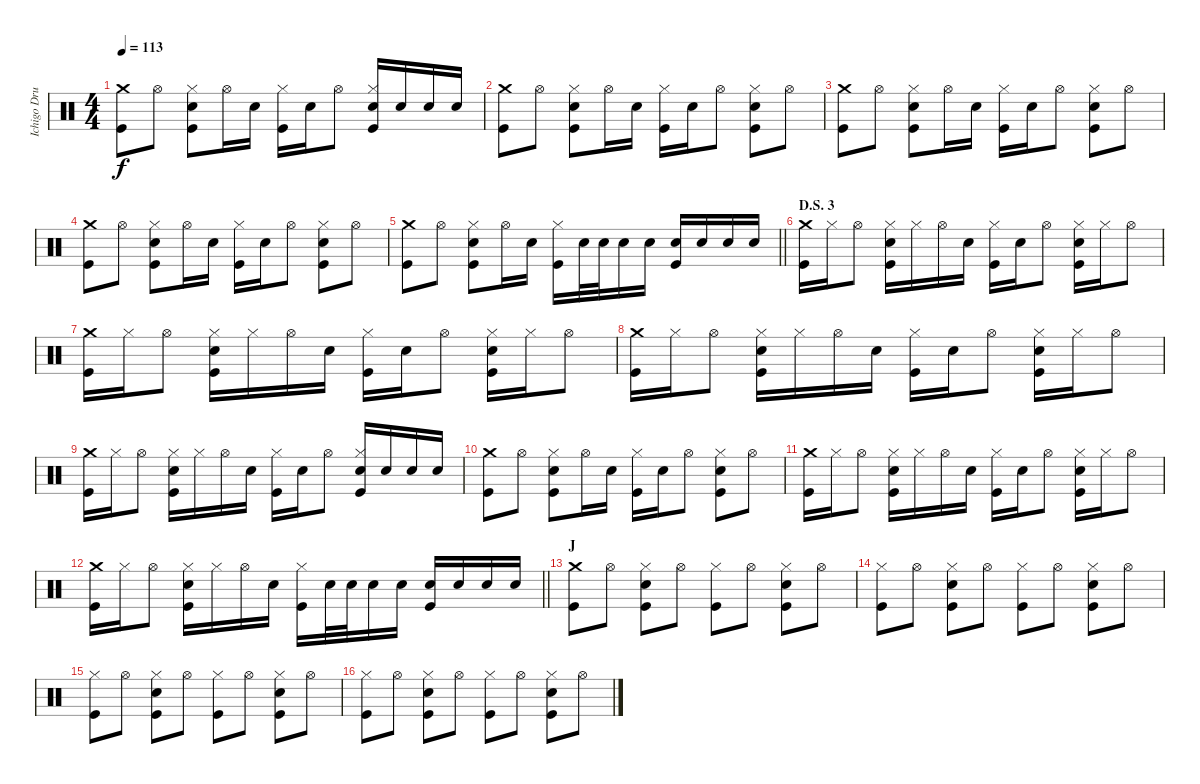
\track ("Ichigo Drums" "Ichigo Dru") {instrument percussion}
\staff {score}
\articulation defaults
\ts (4 4)
\tempo 113
\clef neutral
\ks c
("Crash medium (hit)" "Kick (hit)").8{dy f} "Hi-Hat (open)".8 ("Hi-Hat (closed)" "Snare (hit) 2" "Kick (hit)").8 "Hi-Hat (open)".16 "Snare (hit) 2".16 ("Hi-Hat (closed)" "Kick (hit)").16 "Snare (hit) 2".16 "Hi-Hat (open)".8 ("Hi-Hat (closed)" "Snare (hit) 2" "Kick (hit)").16 "Snare (hit) 2".16 "Snare (hit) 2".16 "Snare (hit) 2".16 |
("Crash medium (hit)" "Kick (hit)").8 "Hi-Hat (open)".8 ("Hi-Hat (closed)" "Snare (hit) 2" "Kick (hit)").8 "Hi-Hat (open)".16 "Snare (hit) 2".16 ("Hi-Hat (closed)" "Kick (hit)").16 "Snare (hit) 2".16 "Hi-Hat (open)".8 ("Hi-Hat (closed)" "Snare (hit) 2" "Kick (hit)").8 "Hi-Hat (open)".8 |
("Crash medium (hit)" "Kick (hit)").8 "Hi-Hat (open)".8 ("Hi-Hat (closed)" "Snare (hit) 2" "Kick (hit)").8 "Hi-Hat (open)".16 "Snare (hit) 2".16 ("Hi-Hat (closed)" "Kick (hit)").16 "Snare (hit) 2".16 "Hi-Hat (open)".8 ("Hi-Hat (closed)" "Snare (hit) 2" "Kick (hit)").8 "Hi-Hat (open)".8 |
("Crash medium (hit)" "Kick (hit)").8 "Hi-Hat (open)".8 ("Hi-Hat (closed)" "Snare (hit) 2" "Kick (hit)").8 "Hi-Hat (open)".16 "Snare (hit) 2".16 ("Hi-Hat (closed)" "Kick (hit)").16 "Snare (hit) 2".16 "Hi-Hat (open)".8 ("Hi-Hat (closed)" "Snare (hit) 2" "Kick (hit)").8 "Hi-Hat (open)".8 |
\barLineRight lightlight
("Crash medium (hit)" "Kick (hit)").8 "Hi-Hat (open)".8 ("Hi-Hat (closed)" "Snare (hit) 2" "Kick (hit)").8 "Hi-Hat (open)".16 "Snare (hit) 2".16 ("Hi-Hat (closed)" "Kick (hit)").16 "Snare (hit) 2".32 "Snare (hit) 2".32 "Snare (hit) 2".16 "Snare (hit) 2".16 ("Snare (hit) 2" "Kick (hit)").16 "Snare (hit) 2".16 "Snare (hit) 2".16 "Snare (hit) 2".16 |
\section ("" "D.S. 3")
("Crash medium (hit)" "Kick (hit)").16 "Hi-Hat (closed)".16 "Hi-Hat (open)".8 ("Hi-Hat (closed)" "Snare (hit) 2" "Kick (hit)").16 "Hi-Hat (closed)".16 "Hi-Hat (open)".16 "Snare (hit) 2".16 ("Hi-Hat (closed)" "Kick (hit)").16 "Snare (hit) 2".16 "Hi-Hat (open)".8 ("Hi-Hat (closed)" "Snare (hit) 2" "Kick (hit)").16 "Hi-Hat (closed)".16 "Hi-Hat (open)".8 |
("Crash medium (hit)" "Kick (hit)").16 "Hi-Hat (closed)".16 "Hi-Hat (open)".8 ("Hi-Hat (closed)" "Snare (hit) 2" "Kick (hit)").16 "Hi-Hat (closed)".16 "Hi-Hat (open)".16 "Snare (hit) 2".16 ("Hi-Hat (closed)" "Kick (hit)").16 "Snare (hit) 2".16 "Hi-Hat (open)".8 ("Hi-Hat (closed)" "Snare (hit) 2" "Kick (hit)").16 "Hi-Hat (closed)".16 "Hi-Hat (open)".8 |
("Crash medium (hit)" "Kick (hit)").16 "Hi-Hat (closed)".16 "Hi-Hat (open)".8 ("Hi-Hat (closed)" "Snare (hit) 2" "Kick (hit)").16 "Hi-Hat (closed)".16 "Hi-Hat (open)".16 "Snare (hit) 2".16 ("Hi-Hat (closed)" "Kick (hit)").16 "Snare (hit) 2".16 "Hi-Hat (open)".8 ("Hi-Hat (closed)" "Snare (hit) 2" "Kick (hit)").16 "Hi-Hat (closed)".16 "Hi-Hat (open)".8 |
("Crash medium (hit)" "Kick (hit)").16 "Hi-Hat (closed)".16 "Hi-Hat (open)".8 ("Hi-Hat (closed)" "Snare (hit) 2" "Kick (hit)").16 "Hi-Hat (closed)".16 "Hi-Hat (open)".16 "Snare (hit) 2".16 ("Hi-Hat (closed)" "Kick (hit)").16 "Snare (hit) 2".16 "Hi-Hat (open)".8 ("Hi-Hat (closed)" "Snare (hit) 2" "Kick (hit)").16 "Snare (hit) 2".16 "Snare (hit) 2".16 "Snare (hit) 2".16 |
("Crash medium (hit)" "Kick (hit)").8 "Hi-Hat (open)".8 ("Hi-Hat (closed)" "Snare (hit) 2" "Kick (hit)").8 "Hi-Hat (open)".16 "Snare (hit) 2".16 ("Hi-Hat (closed)" "Kick (hit)").16 "Snare (hit) 2".16 "Hi-Hat (open)".8 ("Hi-Hat (closed)" "Snare (hit) 2" "Kick (hit)").8 "Hi-Hat (open)".8 |
("Crash medium (hit)" "Kick (hit)").16 "Hi-Hat (closed)".16 "Hi-Hat (open)".8 ("Hi-Hat (closed)" "Snare (hit) 2" "Kick (hit)").16 "Hi-Hat (closed)".16 "Hi-Hat (open)".16 "Snare (hit) 2".16 ("Hi-Hat (closed)" "Kick (hit)").16 "Snare (hit) 2".16 "Hi-Hat (open)".8 ("Hi-Hat (closed)" "Snare (hit) 2" "Kick (hit)").16 "Hi-Hat (closed)".16 "Hi-Hat (open)".8 |
\barLineRight lightlight
("Crash medium (hit)" "Kick (hit)").16 "Hi-Hat (closed)".16 "Hi-Hat (open)".8 ("Hi-Hat (closed)" "Snare (hit) 2" "Kick (hit)").16 "Hi-Hat (closed)".16 "Hi-Hat (open)".16 "Snare (hit) 2".16 ("Hi-Hat (closed)" "Kick (hit)").16 "Snare (hit) 2".32 "Snare (hit) 2".32 "Snare (hit) 2".16 "Snare (hit) 2".16 ("Snare (hit) 2" "Kick (hit)").16 "Snare (hit) 2".16 "Snare (hit) 2".16 "Snare (hit) 2".16 |
\section ("" "J")
("Crash medium (hit)" "Kick (hit)").8 "Hi-Hat (open)".8 ("Hi-Hat (closed)" "Snare (hit) 2" "Kick (hit)").8 "Hi-Hat (open)".8 ("Hi-Hat (closed)" "Kick (hit)").8 "Hi-Hat (open)".8 ("Hi-Hat (closed)" "Snare (hit) 2" "Kick (hit)").8 "Hi-Hat (open)".8 |
("Hi-Hat (closed)" "Kick (hit)").8 "Hi-Hat (open)".8 ("Hi-Hat (closed)" "Snare (hit) 2" "Kick (hit)").8 "Hi-Hat (open)".8 ("Hi-Hat (closed)" "Kick (hit)").8 "Hi-Hat (open)".8 ("Hi-Hat (closed)" "Snare (hit) 2" "Kick (hit)").8 "Hi-Hat (open)".8 |
("Hi-Hat (closed)" "Kick (hit)").8 "Hi-Hat (open)".8 ("Hi-Hat (closed)" "Snare (hit) 2" "Kick (hit)").8 "Hi-Hat (open)".8 ("Hi-Hat (closed)" "Kick (hit)").8 "Hi-Hat (open)".8 ("Hi-Hat (closed)" "Snare (hit) 2" "Kick (hit)").8 "Hi-Hat (open)".8 |
("Hi-Hat (closed)" "Kick (hit)").8 "Hi-Hat (open)".8 ("Hi-Hat (closed)" "Snare (hit) 2" "Kick (hit)").8 "Hi-Hat (open)".8 ("Hi-Hat (closed)" "Kick (hit)").8 "Hi-Hat (open)".8 ("Hi-Hat (closed)" "Snare (hit) 2" "Kick (hit)").8 "Hi-Hat (open)".8
